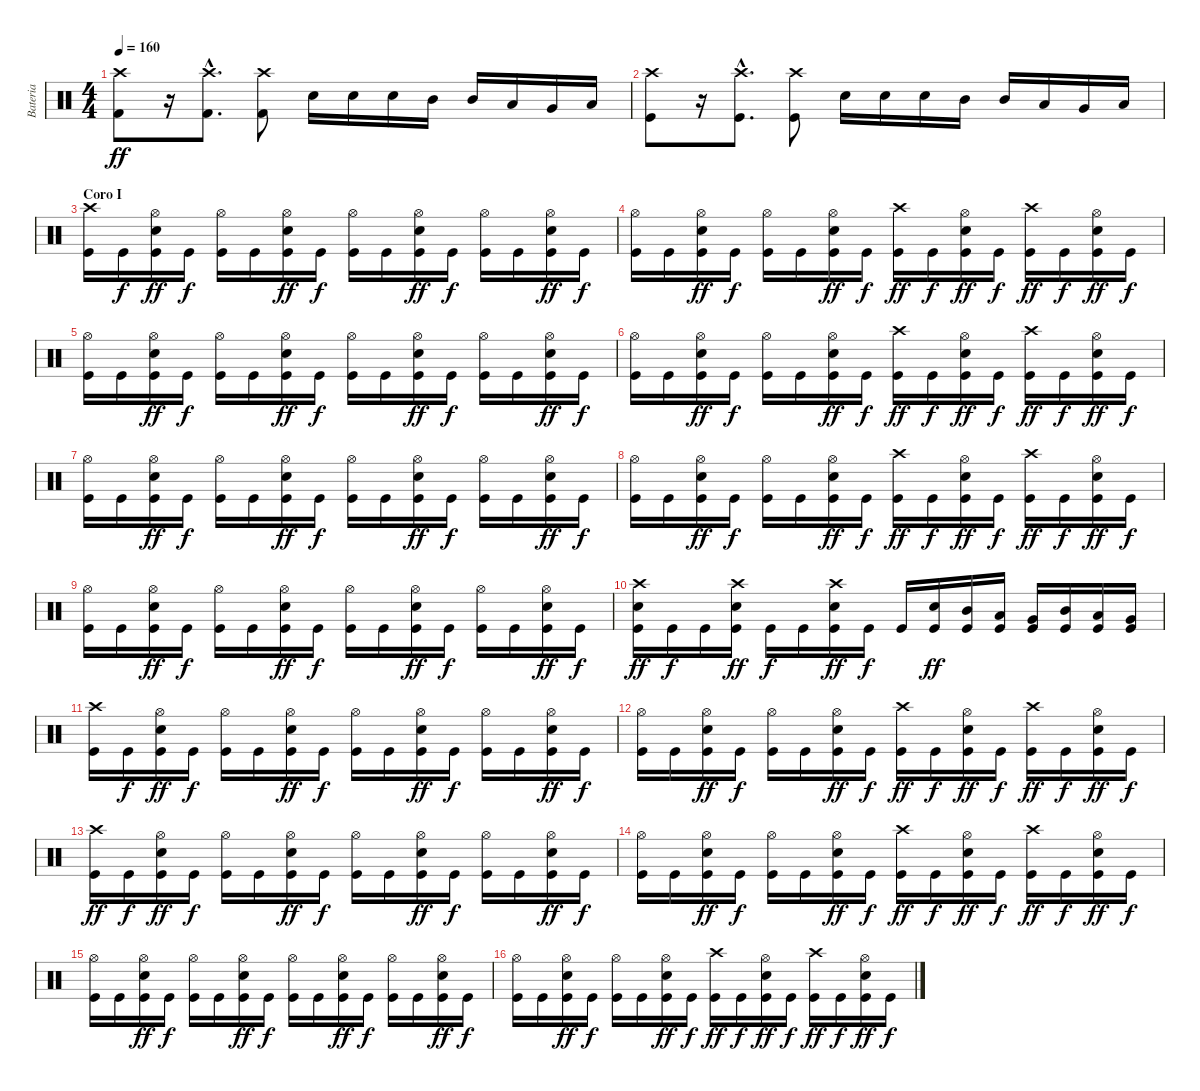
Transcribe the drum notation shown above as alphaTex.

\track ("Bateria" "Bateria") {instrument percussion}
\staff {score}
\articulation defaults
\ts (4 4)
\tempo 160
\clef neutral
\ks c
("Kick (hit) 2" "Crash high (hit)").8{dy ff} r.16 ("Kick (hit) 2"{hac} "Crash high (hit)"{hac}).8{d} ("Kick (hit) 2" "Crash high (hit)").8 "Electric Snare (hit)".16 "Electric Snare (hit)".16 "Electric Snare (hit)".16 "Mid Tom (hit)".16 "Mid Tom (hit)".16 "Low Tom (hit)".16 "Very Low Tom (hit)".16 "Low Floor Tom (hit)".16 |
("Kick (hit)" "Crash high (hit)").8 r.16 ("Kick (hit)"{hac} "Crash high (hit)"{hac}).8{d} ("Kick (hit)" "Crash high (hit)").8 "Electric Snare (hit)".16 "Electric Snare (hit)".16 "Electric Snare (hit)".16 "Mid Tom (hit)".16 "Mid Tom (hit)".16 "Low Tom (hit)".16 "Very Low Tom (hit)".16 "Low Floor Tom (hit)".16 |
\section ("" "Coro I")
("Kick (hit)" "Crash high (hit)").16 "Kick (hit)".16{dy f} ("Kick (hit)" "Electric Snare (hit)" "Hi-Hat (open)").16{dy ff} "Kick (hit)".16{dy f} ("Kick (hit)" "Hi-Hat (open)").16 "Kick (hit)".16 ("Kick (hit)" "Electric Snare (hit)" "Hi-Hat (open)").16{dy ff} "Kick (hit)".16{dy f} ("Kick (hit)" "Hi-Hat (open)").16 "Kick (hit)".16 ("Kick (hit)" "Electric Snare (hit)" "Hi-Hat (open)").16{dy ff} "Kick (hit)".16{dy f} ("Kick (hit)" "Hi-Hat (open)").16 "Kick (hit)".16 ("Kick (hit)" "Electric Snare (hit)" "Hi-Hat (open)").16{dy ff} "Kick (hit)".16{dy f} |
("Kick (hit)" "Hi-Hat (open)").16 "Kick (hit)".16 ("Kick (hit)" "Electric Snare (hit)" "Hi-Hat (open)").16{dy ff} "Kick (hit)".16{dy f} ("Kick (hit)" "Hi-Hat (open)").16 "Kick (hit)".16 ("Kick (hit)" "Electric Snare (hit)" "Hi-Hat (open)").16{dy ff} "Kick (hit)".16{dy f} ("Kick (hit)" "Crash high (hit)").16{dy ff} "Kick (hit)".16{dy f} ("Kick (hit)" "Electric Snare (hit)" "Hi-Hat (open)").16{dy ff} "Kick (hit)".16{dy f} ("Kick (hit)" "Crash high (hit)").16{dy ff} "Kick (hit)".16{dy f} ("Kick (hit)" "Electric Snare (hit)" "Hi-Hat (open)").16{dy ff} "Kick (hit)".16{dy f} |
("Kick (hit)" "Hi-Hat (open)").16 "Kick (hit)".16 ("Kick (hit)" "Electric Snare (hit)" "Hi-Hat (open)").16{dy ff} "Kick (hit)".16{dy f} ("Kick (hit)" "Hi-Hat (open)").16 "Kick (hit)".16 ("Kick (hit)" "Electric Snare (hit)" "Hi-Hat (open)").16{dy ff} "Kick (hit)".16{dy f} ("Kick (hit)" "Hi-Hat (open)").16 "Kick (hit)".16 ("Kick (hit)" "Electric Snare (hit)" "Hi-Hat (open)").16{dy ff} "Kick (hit)".16{dy f} ("Kick (hit)" "Hi-Hat (open)").16 "Kick (hit)".16 ("Kick (hit)" "Electric Snare (hit)" "Hi-Hat (open)").16{dy ff} "Kick (hit)".16{dy f} |
("Kick (hit)" "Hi-Hat (open)").16 "Kick (hit)".16 ("Kick (hit)" "Electric Snare (hit)" "Hi-Hat (open)").16{dy ff} "Kick (hit)".16{dy f} ("Kick (hit)" "Hi-Hat (open)").16 "Kick (hit)".16 ("Kick (hit)" "Electric Snare (hit)" "Hi-Hat (open)").16{dy ff} "Kick (hit)".16{dy f} ("Kick (hit)" "Crash high (hit)").16{dy ff} "Kick (hit)".16{dy f} ("Kick (hit)" "Electric Snare (hit)" "Hi-Hat (open)").16{dy ff} "Kick (hit)".16{dy f} ("Kick (hit)" "Crash high (hit)").16{dy ff} "Kick (hit)".16{dy f} ("Kick (hit)" "Electric Snare (hit)" "Hi-Hat (open)").16{dy ff} "Kick (hit)".16{dy f} |
("Kick (hit)" "Hi-Hat (open)").16 "Kick (hit)".16 ("Kick (hit)" "Electric Snare (hit)" "Hi-Hat (open)").16{dy ff} "Kick (hit)".16{dy f} ("Kick (hit)" "Hi-Hat (open)").16 "Kick (hit)".16 ("Kick (hit)" "Electric Snare (hit)" "Hi-Hat (open)").16{dy ff} "Kick (hit)".16{dy f} ("Kick (hit)" "Hi-Hat (open)").16 "Kick (hit)".16 ("Kick (hit)" "Electric Snare (hit)" "Hi-Hat (open)").16{dy ff} "Kick (hit)".16{dy f} ("Kick (hit)" "Hi-Hat (open)").16 "Kick (hit)".16 ("Kick (hit)" "Electric Snare (hit)" "Hi-Hat (open)").16{dy ff} "Kick (hit)".16{dy f} |
("Kick (hit)" "Hi-Hat (open)").16 "Kick (hit)".16 ("Kick (hit)" "Electric Snare (hit)" "Hi-Hat (open)").16{dy ff} "Kick (hit)".16{dy f} ("Kick (hit)" "Hi-Hat (open)").16 "Kick (hit)".16 ("Kick (hit)" "Electric Snare (hit)" "Hi-Hat (open)").16{dy ff} "Kick (hit)".16{dy f} ("Kick (hit)" "Crash high (hit)").16{dy ff} "Kick (hit)".16{dy f} ("Kick (hit)" "Electric Snare (hit)" "Hi-Hat (open)").16{dy ff} "Kick (hit)".16{dy f} ("Kick (hit)" "Crash high (hit)").16{dy ff} "Kick (hit)".16{dy f} ("Kick (hit)" "Electric Snare (hit)" "Hi-Hat (open)").16{dy ff} "Kick (hit)".16{dy f} |
("Kick (hit)" "Hi-Hat (open)").16 "Kick (hit)".16 ("Kick (hit)" "Electric Snare (hit)" "Hi-Hat (open)").16{dy ff} "Kick (hit)".16{dy f} ("Kick (hit)" "Hi-Hat (open)").16 "Kick (hit)".16 ("Kick (hit)" "Electric Snare (hit)" "Hi-Hat (open)").16{dy ff} "Kick (hit)".16{dy f} ("Kick (hit)" "Hi-Hat (open)").16 "Kick (hit)".16 ("Kick (hit)" "Electric Snare (hit)" "Hi-Hat (open)").16{dy ff} "Kick (hit)".16{dy f} ("Kick (hit)" "Hi-Hat (open)").16 "Kick (hit)".16 ("Kick (hit)" "Electric Snare (hit)" "Hi-Hat (open)").16{dy ff} "Kick (hit)".16{dy f} |
("Kick (hit)" "Electric Snare (hit)" "Crash high (hit)").16{dy ff} "Kick (hit)".16{dy f} "Kick (hit)".16 ("Kick (hit)" "Electric Snare (hit)" "Crash high (hit)").16{dy ff} "Kick (hit)".16{dy f} "Kick (hit)".16 ("Kick (hit)" "Electric Snare (hit)" "Crash high (hit)").16{dy ff} "Kick (hit)".16{dy f} "Kick (hit)".16 ("Kick (hit)" "Electric Snare (hit)").16{dy ff} ("Kick (hit)" "Mid Tom (hit)").16 ("Kick (hit)" "Low Tom (hit)").16 ("Kick (hit)" "Very Low Tom (hit)").16 ("Kick (hit)" "Mid Tom (hit)").16 ("Kick (hit)" "Low Tom (hit)").16 ("Kick (hit)" "Very Low Tom (hit)").16 |
("Kick (hit)" "Crash high (hit)").16 "Kick (hit)".16{dy f} ("Kick (hit)" "Electric Snare (hit)" "Hi-Hat (open)").16{dy ff} "Kick (hit)".16{dy f} ("Kick (hit)" "Hi-Hat (open)").16 "Kick (hit)".16 ("Kick (hit)" "Electric Snare (hit)" "Hi-Hat (open)").16{dy ff} "Kick (hit)".16{dy f} ("Kick (hit)" "Hi-Hat (open)").16 "Kick (hit)".16 ("Kick (hit)" "Electric Snare (hit)" "Hi-Hat (open)").16{dy ff} "Kick (hit)".16{dy f} ("Kick (hit)" "Hi-Hat (open)").16 "Kick (hit)".16 ("Kick (hit)" "Electric Snare (hit)" "Hi-Hat (open)").16{dy ff} "Kick (hit)".16{dy f} |
("Kick (hit)" "Hi-Hat (open)").16 "Kick (hit)".16 ("Kick (hit)" "Electric Snare (hit)" "Hi-Hat (open)").16{dy ff} "Kick (hit)".16{dy f} ("Kick (hit)" "Hi-Hat (open)").16 "Kick (hit)".16 ("Kick (hit)" "Electric Snare (hit)" "Hi-Hat (open)").16{dy ff} "Kick (hit)".16{dy f} ("Kick (hit)" "Crash high (hit)").16{dy ff} "Kick (hit)".16{dy f} ("Kick (hit)" "Electric Snare (hit)" "Hi-Hat (open)").16{dy ff} "Kick (hit)".16{dy f} ("Kick (hit)" "Crash high (hit)").16{dy ff} "Kick (hit)".16{dy f} ("Kick (hit)" "Electric Snare (hit)" "Hi-Hat (open)").16{dy ff} "Kick (hit)".16{dy f} |
("Kick (hit)" "Crash high (hit)").16{dy ff} "Kick (hit)".16{dy f} ("Kick (hit)" "Electric Snare (hit)" "Hi-Hat (open)").16{dy ff} "Kick (hit)".16{dy f} ("Kick (hit)" "Hi-Hat (open)").16 "Kick (hit)".16 ("Kick (hit)" "Electric Snare (hit)" "Hi-Hat (open)").16{dy ff} "Kick (hit)".16{dy f} ("Kick (hit)" "Hi-Hat (open)").16 "Kick (hit)".16 ("Kick (hit)" "Electric Snare (hit)" "Hi-Hat (open)").16{dy ff} "Kick (hit)".16{dy f} ("Kick (hit)" "Hi-Hat (open)").16 "Kick (hit)".16 ("Kick (hit)" "Electric Snare (hit)" "Hi-Hat (open)").16{dy ff} "Kick (hit)".16{dy f} |
("Kick (hit)" "Hi-Hat (open)").16 "Kick (hit)".16 ("Kick (hit)" "Electric Snare (hit)" "Hi-Hat (open)").16{dy ff} "Kick (hit)".16{dy f} ("Kick (hit)" "Hi-Hat (open)").16 "Kick (hit)".16 ("Kick (hit)" "Electric Snare (hit)" "Hi-Hat (open)").16{dy ff} "Kick (hit)".16{dy f} ("Kick (hit)" "Crash high (hit)").16{dy ff} "Kick (hit)".16{dy f} ("Kick (hit)" "Electric Snare (hit)" "Hi-Hat (open)").16{dy ff} "Kick (hit)".16{dy f} ("Kick (hit)" "Crash high (hit)").16{dy ff} "Kick (hit)".16{dy f} ("Kick (hit)" "Electric Snare (hit)" "Hi-Hat (open)").16{dy ff} "Kick (hit)".16{dy f} |
("Kick (hit)" "Hi-Hat (open)").16 "Kick (hit)".16 ("Kick (hit)" "Electric Snare (hit)" "Hi-Hat (open)").16{dy ff} "Kick (hit)".16{dy f} ("Kick (hit)" "Hi-Hat (open)").16 "Kick (hit)".16 ("Kick (hit)" "Electric Snare (hit)" "Hi-Hat (open)").16{dy ff} "Kick (hit)".16{dy f} ("Kick (hit)" "Hi-Hat (open)").16 "Kick (hit)".16 ("Kick (hit)" "Electric Snare (hit)" "Hi-Hat (open)").16{dy ff} "Kick (hit)".16{dy f} ("Kick (hit)" "Hi-Hat (open)").16 "Kick (hit)".16 ("Kick (hit)" "Electric Snare (hit)" "Hi-Hat (open)").16{dy ff} "Kick (hit)".16{dy f} |
("Kick (hit)" "Hi-Hat (open)").16 "Kick (hit)".16 ("Kick (hit)" "Electric Snare (hit)" "Hi-Hat (open)").16{dy ff} "Kick (hit)".16{dy f} ("Kick (hit)" "Hi-Hat (open)").16 "Kick (hit)".16 ("Kick (hit)" "Electric Snare (hit)" "Hi-Hat (open)").16{dy ff} "Kick (hit)".16{dy f} ("Kick (hit)" "Crash high (hit)").16{dy ff} "Kick (hit)".16{dy f} ("Kick (hit)" "Electric Snare (hit)" "Hi-Hat (open)").16{dy ff} "Kick (hit)".16{dy f} ("Kick (hit)" "Crash high (hit)").16{dy ff} "Kick (hit)".16{dy f} ("Kick (hit)" "Electric Snare (hit)" "Hi-Hat (open)").16{dy ff} "Kick (hit)".16{dy f}
